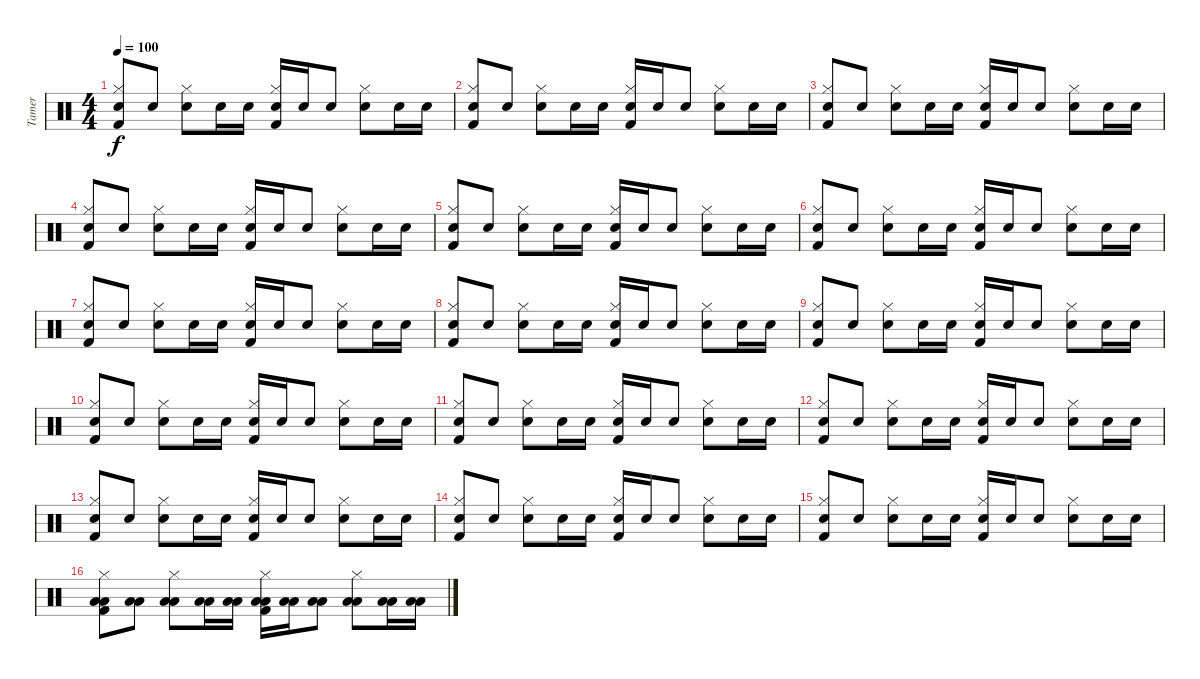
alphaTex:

\track ("Tamer" "Tamer") {instrument percussion}
\staff {score}
\articulation defaults
\ts (4 4)
\tempo 100
\clef neutral
\ks c
("Snare (hit) 2" "Hi-Hat (closed)" "Kick (hit) 2").8{dy f} "Snare (hit) 2".8 ("Snare (hit) 2" "Hi-Hat (closed)").8 "Snare (hit) 2".16 "Snare (hit) 2".16 ("Snare (hit) 2" "Hi-Hat (closed)" "Kick (hit) 2").16 "Snare (hit) 2".16 "Snare (hit) 2".8 ("Snare (hit) 2" "Hi-Hat (closed)").8 "Snare (hit) 2".16 "Snare (hit) 2".16 |
("Snare (hit) 2" "Hi-Hat (closed)" "Kick (hit) 2").8 "Snare (hit) 2".8 ("Snare (hit) 2" "Hi-Hat (closed)").8 "Snare (hit) 2".16 "Snare (hit) 2".16 ("Snare (hit) 2" "Hi-Hat (closed)" "Kick (hit) 2").16 "Snare (hit) 2".16 "Snare (hit) 2".8 ("Snare (hit) 2" "Hi-Hat (closed)").8 "Snare (hit) 2".16 "Snare (hit) 2".16 |
("Snare (hit) 2" "Hi-Hat (closed)" "Kick (hit) 2").8 "Snare (hit) 2".8 ("Snare (hit) 2" "Hi-Hat (closed)").8 "Snare (hit) 2".16 "Snare (hit) 2".16 ("Snare (hit) 2" "Hi-Hat (closed)" "Kick (hit) 2").16 "Snare (hit) 2".16 "Snare (hit) 2".8 ("Snare (hit) 2" "Hi-Hat (closed)").8 "Snare (hit) 2".16 "Snare (hit) 2".16 |
("Snare (hit) 2" "Hi-Hat (closed)" "Kick (hit) 2").8 "Snare (hit) 2".8 ("Snare (hit) 2" "Hi-Hat (closed)").8 "Snare (hit) 2".16 "Snare (hit) 2".16 ("Snare (hit) 2" "Hi-Hat (closed)" "Kick (hit) 2").16 "Snare (hit) 2".16 "Snare (hit) 2".8 ("Snare (hit) 2" "Hi-Hat (closed)").8 "Snare (hit) 2".16 "Snare (hit) 2".16 |
("Snare (hit) 2" "Hi-Hat (closed)" "Kick (hit) 2").8 "Snare (hit) 2".8 ("Snare (hit) 2" "Hi-Hat (closed)").8 "Snare (hit) 2".16 "Snare (hit) 2".16 ("Snare (hit) 2" "Hi-Hat (closed)" "Kick (hit) 2").16 "Snare (hit) 2".16 "Snare (hit) 2".8 ("Snare (hit) 2" "Hi-Hat (closed)").8 "Snare (hit) 2".16 "Snare (hit) 2".16 |
("Snare (hit) 2" "Hi-Hat (closed)" "Kick (hit) 2").8 "Snare (hit) 2".8 ("Snare (hit) 2" "Hi-Hat (closed)").8 "Snare (hit) 2".16 "Snare (hit) 2".16 ("Snare (hit) 2" "Hi-Hat (closed)" "Kick (hit) 2").16 "Snare (hit) 2".16 "Snare (hit) 2".8 ("Snare (hit) 2" "Hi-Hat (closed)").8 "Snare (hit) 2".16 "Snare (hit) 2".16 |
("Snare (hit) 2" "Hi-Hat (closed)" "Kick (hit) 2").8 "Snare (hit) 2".8 ("Snare (hit) 2" "Hi-Hat (closed)").8 "Snare (hit) 2".16 "Snare (hit) 2".16 ("Snare (hit) 2" "Hi-Hat (closed)" "Kick (hit) 2").16 "Snare (hit) 2".16 "Snare (hit) 2".8 ("Snare (hit) 2" "Hi-Hat (closed)").8 "Snare (hit) 2".16 "Snare (hit) 2".16 |
("Snare (hit) 2" "Hi-Hat (closed)" "Kick (hit) 2").8 "Snare (hit) 2".8 ("Snare (hit) 2" "Hi-Hat (closed)").8 "Snare (hit) 2".16 "Snare (hit) 2".16 ("Snare (hit) 2" "Hi-Hat (closed)" "Kick (hit) 2").16 "Snare (hit) 2".16 "Snare (hit) 2".8 ("Snare (hit) 2" "Hi-Hat (closed)").8 "Snare (hit) 2".16 "Snare (hit) 2".16 |
("Snare (hit) 2" "Hi-Hat (closed)" "Kick (hit) 2").8 "Snare (hit) 2".8 ("Snare (hit) 2" "Hi-Hat (closed)").8 "Snare (hit) 2".16 "Snare (hit) 2".16 ("Snare (hit) 2" "Hi-Hat (closed)" "Kick (hit) 2").16 "Snare (hit) 2".16 "Snare (hit) 2".8 ("Snare (hit) 2" "Hi-Hat (closed)").8 "Snare (hit) 2".16 "Snare (hit) 2".16 |
("Snare (hit) 2" "Hi-Hat (closed)" "Kick (hit) 2").8 "Snare (hit) 2".8 ("Snare (hit) 2" "Hi-Hat (closed)").8 "Snare (hit) 2".16 "Snare (hit) 2".16 ("Snare (hit) 2" "Hi-Hat (closed)" "Kick (hit) 2").16 "Snare (hit) 2".16 "Snare (hit) 2".8 ("Snare (hit) 2" "Hi-Hat (closed)").8 "Snare (hit) 2".16 "Snare (hit) 2".16 |
("Snare (hit) 2" "Hi-Hat (closed)" "Kick (hit) 2").8 "Snare (hit) 2".8 ("Snare (hit) 2" "Hi-Hat (closed)").8 "Snare (hit) 2".16 "Snare (hit) 2".16 ("Snare (hit) 2" "Hi-Hat (closed)" "Kick (hit) 2").16 "Snare (hit) 2".16 "Snare (hit) 2".8 ("Snare (hit) 2" "Hi-Hat (closed)").8 "Snare (hit) 2".16 "Snare (hit) 2".16 |
("Snare (hit) 2" "Hi-Hat (closed)" "Kick (hit) 2").8 "Snare (hit) 2".8 ("Snare (hit) 2" "Hi-Hat (closed)").8 "Snare (hit) 2".16 "Snare (hit) 2".16 ("Snare (hit) 2" "Hi-Hat (closed)" "Kick (hit) 2").16 "Snare (hit) 2".16 "Snare (hit) 2".8 ("Snare (hit) 2" "Hi-Hat (closed)").8 "Snare (hit) 2".16 "Snare (hit) 2".16 |
("Snare (hit) 2" "Hi-Hat (closed)" "Kick (hit) 2").8 "Snare (hit) 2".8 ("Snare (hit) 2" "Hi-Hat (closed)").8 "Snare (hit) 2".16 "Snare (hit) 2".16 ("Snare (hit) 2" "Hi-Hat (closed)" "Kick (hit) 2").16 "Snare (hit) 2".16 "Snare (hit) 2".8 ("Snare (hit) 2" "Hi-Hat (closed)").8 "Snare (hit) 2".16 "Snare (hit) 2".16 |
("Snare (hit) 2" "Hi-Hat (closed)" "Kick (hit) 2").8 "Snare (hit) 2".8 ("Snare (hit) 2" "Hi-Hat (closed)").8 "Snare (hit) 2".16 "Snare (hit) 2".16 ("Snare (hit) 2" "Hi-Hat (closed)" "Kick (hit) 2").16 "Snare (hit) 2".16 "Snare (hit) 2".8 ("Snare (hit) 2" "Hi-Hat (closed)").8 "Snare (hit) 2".16 "Snare (hit) 2".16 |
("Snare (hit) 2" "Hi-Hat (closed)" "Kick (hit) 2").8 "Snare (hit) 2".8 ("Snare (hit) 2" "Hi-Hat (closed)").8 "Snare (hit) 2".16 "Snare (hit) 2".16 ("Snare (hit) 2" "Hi-Hat (closed)" "Kick (hit) 2").16 "Snare (hit) 2".16 "Snare (hit) 2".8 ("Snare (hit) 2" "Hi-Hat (closed)").8 "Snare (hit) 2".16 "Snare (hit) 2".16 |
("Low Tom (hit)" "Hi-Hat (closed)" "Kick (hit) 2" "Low Tom (hit)").8 ("Low Tom (hit)" "Low Tom (hit)").8 ("Low Tom (hit)" "Hi-Hat (closed)" "Low Tom (hit)").8 ("Low Tom (hit)" "Low Tom (hit)").16 ("Low Tom (hit)" "Low Tom (hit)").16 ("Low Tom (hit)" "Hi-Hat (closed)" "Kick (hit) 2" "Low Tom (hit)").16 ("Low Tom (hit)" "Low Tom (hit)").16 ("Low Tom (hit)" "Low Tom (hit)").8 ("Low Tom (hit)" "Hi-Hat (closed)" "Low Tom (hit)").8 ("Low Tom (hit)" "Low Tom (hit)").16 ("Low Tom (hit)" "Low Tom (hit)").16
